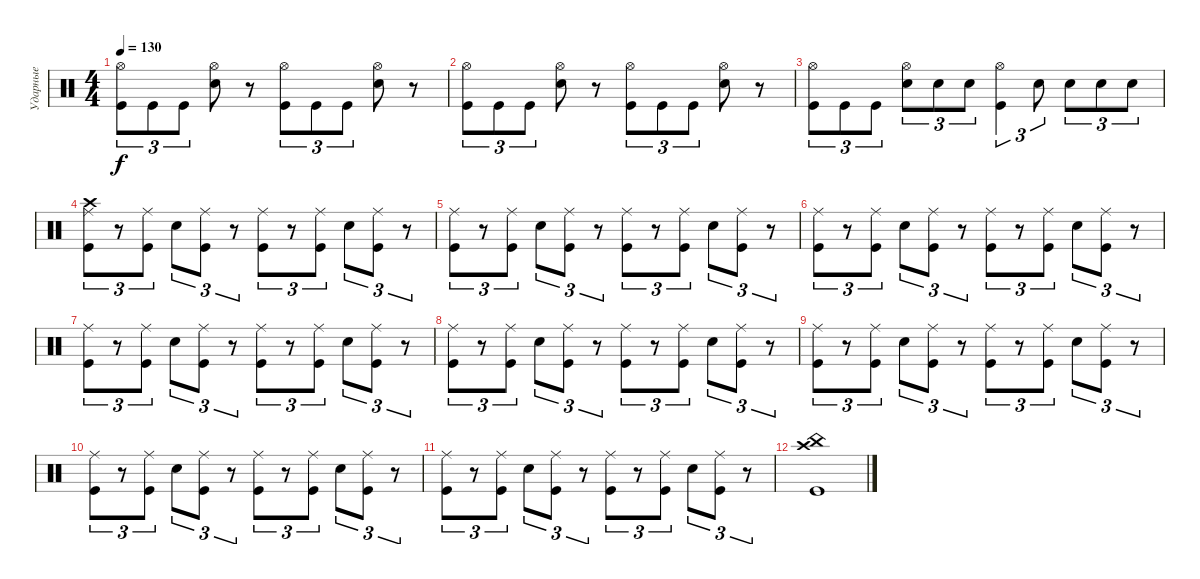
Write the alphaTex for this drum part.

\track ("Ударные" "Ударные") {instrument percussion}
\staff {score}
\articulation defaults
\ts (4 4)
\tempo 130
\clef neutral
\ks c
("Hi-Hat (open)" "Kick (hit)").8{tu (3 2) dy f} "Kick (hit)".8{tu (3 2)} "Kick (hit)".8{tu (3 2)} ("Hi-Hat (open)" "Electric Snare (hit)").8 r.8 ("Hi-Hat (open)" "Kick (hit)").8{tu (3 2)} "Kick (hit)".8{tu (3 2)} "Kick (hit)".8{tu (3 2)} ("Hi-Hat (open)" "Electric Snare (hit)").8 r.8 |
("Hi-Hat (open)" "Kick (hit)").8{tu (3 2)} "Kick (hit)".8{tu (3 2)} "Kick (hit)".8{tu (3 2)} ("Hi-Hat (open)" "Electric Snare (hit)").8 r.8 ("Hi-Hat (open)" "Kick (hit)").8{tu (3 2)} "Kick (hit)".8{tu (3 2)} "Kick (hit)".8{tu (3 2)} ("Hi-Hat (open)" "Electric Snare (hit)").8 r.8 |
("Hi-Hat (open)" "Kick (hit)").8{tu (3 2)} "Kick (hit)".8{tu (3 2)} "Kick (hit)".8{tu (3 2)} ("Hi-Hat (open)" "Electric Snare (hit)").8{tu (3 2)} "Electric Snare (hit)".8{tu (3 2)} "Electric Snare (hit)".8{tu (3 2)} ("Hi-Hat (open)" "Kick (hit)").4{tu (3 2)} "Electric Snare (hit)".8{tu (3 2)} "Electric Snare (hit)".8{tu (3 2)} "Electric Snare (hit)".8{tu (3 2)} "Electric Snare (hit)".8{tu (3 2)} |
("Crash high (hit)" "Ride (middle)" "Kick (hit)").8{tu (3 2)} r.8{tu (3 2)} ("Ride (middle)" "Kick (hit)").8{tu (3 2)} "Electric Snare (hit)".8{tu (3 2)} ("Ride (middle)" "Kick (hit)").8{tu (3 2)} r.8{tu (3 2)} ("Ride (middle)" "Kick (hit)").8{tu (3 2)} r.8{tu (3 2)} ("Ride (middle)" "Kick (hit)").8{tu (3 2)} "Electric Snare (hit)".8{tu (3 2)} ("Ride (middle)" "Kick (hit)").8{tu (3 2)} r.8{tu (3 2)} |
("Ride (middle)" "Kick (hit)").8{tu (3 2)} r.8{tu (3 2)} ("Ride (middle)" "Kick (hit)").8{tu (3 2)} "Electric Snare (hit)".8{tu (3 2)} ("Ride (middle)" "Kick (hit)").8{tu (3 2)} r.8{tu (3 2)} ("Ride (middle)" "Kick (hit)").8{tu (3 2)} r.8{tu (3 2)} ("Ride (middle)" "Kick (hit)").8{tu (3 2)} "Electric Snare (hit)".8{tu (3 2)} ("Ride (middle)" "Kick (hit)").8{tu (3 2)} r.8{tu (3 2)} |
("Ride (middle)" "Kick (hit)").8{tu (3 2)} r.8{tu (3 2)} ("Ride (middle)" "Kick (hit)").8{tu (3 2)} "Electric Snare (hit)".8{tu (3 2)} ("Ride (middle)" "Kick (hit)").8{tu (3 2)} r.8{tu (3 2)} ("Ride (middle)" "Kick (hit)").8{tu (3 2)} r.8{tu (3 2)} ("Ride (middle)" "Kick (hit)").8{tu (3 2)} "Electric Snare (hit)".8{tu (3 2)} ("Ride (middle)" "Kick (hit)").8{tu (3 2)} r.8{tu (3 2)} |
("Ride (middle)" "Kick (hit)").8{tu (3 2)} r.8{tu (3 2)} ("Ride (middle)" "Kick (hit)").8{tu (3 2)} "Electric Snare (hit)".8{tu (3 2)} ("Ride (middle)" "Kick (hit)").8{tu (3 2)} r.8{tu (3 2)} ("Ride (middle)" "Kick (hit)").8{tu (3 2)} r.8{tu (3 2)} ("Ride (middle)" "Kick (hit)").8{tu (3 2)} "Electric Snare (hit)".8{tu (3 2)} ("Ride (middle)" "Kick (hit)").8{tu (3 2)} r.8{tu (3 2)} |
("Ride (middle)" "Kick (hit)").8{tu (3 2)} r.8{tu (3 2)} ("Ride (middle)" "Kick (hit)").8{tu (3 2)} "Electric Snare (hit)".8{tu (3 2)} ("Ride (middle)" "Kick (hit)").8{tu (3 2)} r.8{tu (3 2)} ("Ride (middle)" "Kick (hit)").8{tu (3 2)} r.8{tu (3 2)} ("Ride (middle)" "Kick (hit)").8{tu (3 2)} "Electric Snare (hit)".8{tu (3 2)} ("Ride (middle)" "Kick (hit)").8{tu (3 2)} r.8{tu (3 2)} |
("Ride (middle)" "Kick (hit)").8{tu (3 2)} r.8{tu (3 2)} ("Ride (middle)" "Kick (hit)").8{tu (3 2)} "Electric Snare (hit)".8{tu (3 2)} ("Ride (middle)" "Kick (hit)").8{tu (3 2)} r.8{tu (3 2)} ("Ride (middle)" "Kick (hit)").8{tu (3 2)} r.8{tu (3 2)} ("Ride (middle)" "Kick (hit)").8{tu (3 2)} "Electric Snare (hit)".8{tu (3 2)} ("Ride (middle)" "Kick (hit)").8{tu (3 2)} r.8{tu (3 2)} |
("Ride (middle)" "Kick (hit)").8{tu (3 2)} r.8{tu (3 2)} ("Ride (middle)" "Kick (hit)").8{tu (3 2)} "Electric Snare (hit)".8{tu (3 2)} ("Ride (middle)" "Kick (hit)").8{tu (3 2)} r.8{tu (3 2)} ("Ride (middle)" "Kick (hit)").8{tu (3 2)} r.8{tu (3 2)} ("Ride (middle)" "Kick (hit)").8{tu (3 2)} "Electric Snare (hit)".8{tu (3 2)} ("Ride (middle)" "Kick (hit)").8{tu (3 2)} r.8{tu (3 2)} |
("Ride (middle)" "Kick (hit)").8{tu (3 2)} r.8{tu (3 2)} ("Ride (middle)" "Kick (hit)").8{tu (3 2)} "Electric Snare (hit)".8{tu (3 2)} ("Ride (middle)" "Kick (hit)").8{tu (3 2)} r.8{tu (3 2)} ("Ride (middle)" "Kick (hit)").8{tu (3 2)} r.8{tu (3 2)} ("Ride (middle)" "Kick (hit)").8{tu (3 2)} "Electric Snare (hit)".8{tu (3 2)} ("Ride (middle)" "Kick (hit)").8{tu (3 2)} r.8{tu (3 2)} |
("China (hit)" "Crash high (hit)" "Kick (hit)").1
